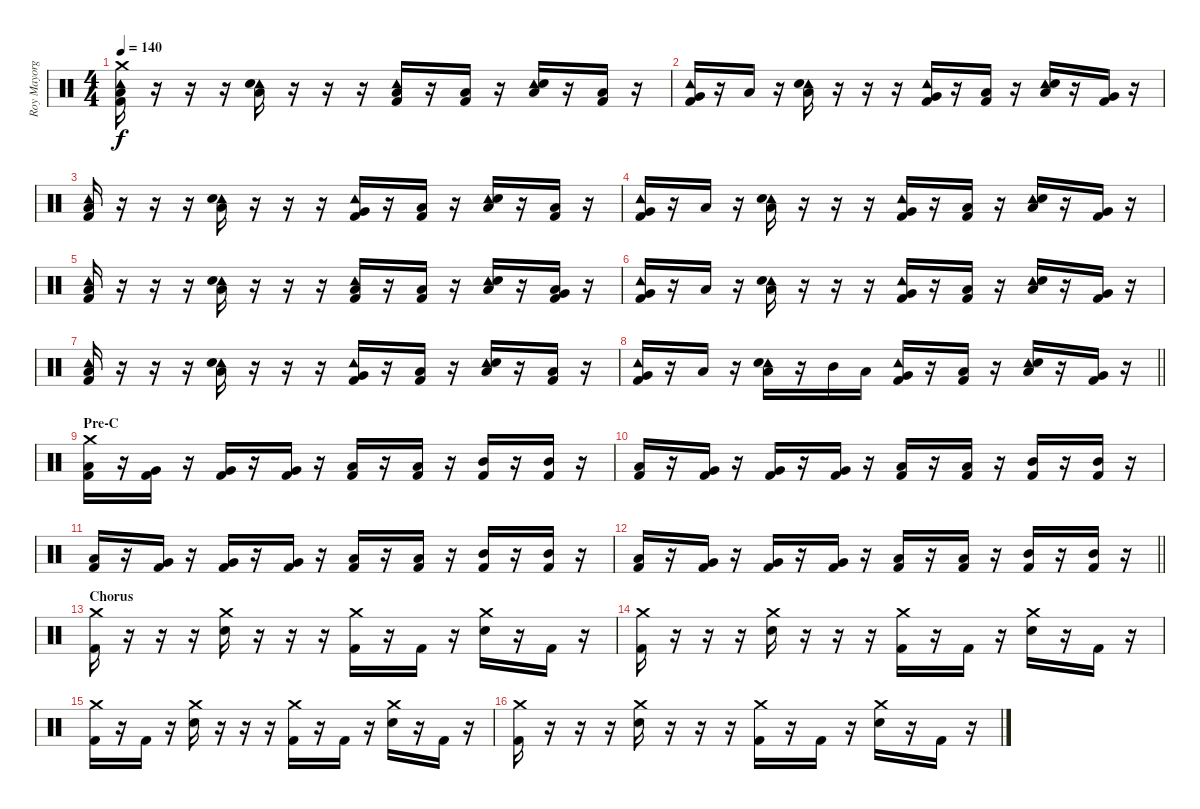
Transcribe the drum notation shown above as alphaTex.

\track ("Roy Mayorga" "Roy Mayorg") {instrument percussion}
\staff {score}
\articulation defaults
\ts (4 4)
\tempo 140
\clef neutral
\ks c
("Crash medium (hit)" "Tambourine (hit)" "Low Tom (hit)" "Kick (hit) 2").16{dy f} r.16 r.16 r.16 ("Tambourine (hit)" "Low Tom (hit)" "Snare (hit) 2").16 r.16 r.16 r.16 ("Tambourine (hit)" "Low Tom (hit)" "Kick (hit) 2").16 r.16 ("Low Floor Tom (hit)" "Kick (hit) 2").16 r.16 ("Tambourine (hit)" "Low Tom (hit)" "Snare (hit) 2").16 r.16 ("Low Floor Tom (hit)" "Kick (hit) 2").16 r.16 |
("Tambourine (hit)" "Very Low Tom (hit)" "Kick (hit) 2").16 r.16 "Low Tom (hit)".16 r.16 ("Tambourine (hit)" "Low Tom (hit)" "Snare (hit) 2").16 r.16 r.16 r.16 ("Tambourine (hit)" "Very Low Tom (hit)" "Kick (hit) 2").16 r.16 ("Low Tom (hit)" "Kick (hit) 2").16 r.16 ("Tambourine (hit)" "Low Tom (hit)" "Snare (hit) 2").16 r.16 ("Very Low Tom (hit)" "Kick (hit) 2").16 r.16 |
("Tambourine (hit)" "Low Tom (hit)" "Kick (hit) 2").16 r.16 r.16 r.16 ("Tambourine (hit)" "Low Tom (hit)" "Snare (hit) 2").16 r.16 r.16 r.16 ("Tambourine (hit)" "Very Low Tom (hit)" "Kick (hit) 2").16 r.16 ("Low Tom (hit)" "Kick (hit) 2").16 r.16 ("Tambourine (hit)" "Low Tom (hit)" "Snare (hit) 2").16 r.16 ("Low Floor Tom (hit)" "Kick (hit) 2").16 r.16 |
("Tambourine (hit)" "Very Low Tom (hit)" "Kick (hit) 2").16 r.16 "Low Tom (hit)".16 r.16 ("Tambourine (hit)" "Low Tom (hit)" "Snare (hit) 2").16 r.16 r.16 r.16 ("Tambourine (hit)" "Very Low Tom (hit)" "Kick (hit) 2").16 r.16 ("Low Tom (hit)" "Kick (hit) 2").16 r.16 ("Tambourine (hit)" "Low Tom (hit)" "Snare (hit) 2").16 r.16 ("Very Low Tom (hit)" "Kick (hit) 2").16 r.16 |
("Tambourine (hit)" "Low Tom (hit)" "Kick (hit) 2").16 r.16 r.16 r.16 ("Tambourine (hit)" "Low Tom (hit)" "Snare (hit) 2").16 r.16 r.16 r.16 ("Tambourine (hit)" "Low Tom (hit)" "Kick (hit) 2").16 r.16 ("Low Floor Tom (hit)" "Kick (hit) 2").16 r.16 ("Tambourine (hit)" "Low Tom (hit)" "Snare (hit) 2").16 r.16 ("Low Floor Tom (hit)" "Very Low Tom (hit)" "Kick (hit) 2").16 r.16 |
("Tambourine (hit)" "Very Low Tom (hit)" "Kick (hit) 2").16 r.16 "Low Tom (hit)".16 r.16 ("Tambourine (hit)" "Low Tom (hit)" "Snare (hit) 2").16 r.16 r.16 r.16 ("Tambourine (hit)" "Very Low Tom (hit)" "Kick (hit) 2").16 r.16 ("Low Tom (hit)" "Kick (hit) 2").16 r.16 ("Tambourine (hit)" "Low Tom (hit)" "Snare (hit) 2").16 r.16 ("Very Low Tom (hit)" "Kick (hit) 2").16 r.16 |
("Tambourine (hit)" "Low Tom (hit)" "Kick (hit) 2").16 r.16 r.16 r.16 ("Tambourine (hit)" "Low Tom (hit)" "Snare (hit) 2").16 r.16 r.16 r.16 ("Tambourine (hit)" "Very Low Tom (hit)" "Kick (hit) 2").16 r.16 ("Low Tom (hit)" "Kick (hit) 2").16 r.16 ("Tambourine (hit)" "Low Tom (hit)" "Snare (hit) 2").16 r.16 ("Low Floor Tom (hit)" "Kick (hit) 2").16 r.16 |
\barLineRight lightlight
("Tambourine (hit)" "Very Low Tom (hit)" "Kick (hit) 2").16 r.16 "Low Tom (hit)".16 r.16 ("Tambourine (hit)" "Low Tom (hit)" "Snare (hit) 2").16 r.16 "Mid Tom (hit)".16 "Low Tom (hit)".16 ("Tambourine (hit)" "Very Low Tom (hit)" "Kick (hit) 2").16 r.16 ("Low Tom (hit)" "Kick (hit) 2").16 r.16 ("Tambourine (hit)" "Low Tom (hit)" "Snare (hit) 2").16 r.16 ("Very Low Tom (hit)" "Kick (hit) 2").16 r.16 |
\section ("" "Pre-C")
("Crash medium (hit)" "Low Tom (hit)" "Kick (hit) 2").16 r.16 ("Very Low Tom (hit)" "Kick (hit) 2").16 r.16 ("Very Low Tom (hit)" "Kick (hit) 2").16 r.16 ("Very Low Tom (hit)" "Kick (hit) 2").16 r.16 ("Low Tom (hit)" "Kick (hit) 2").16 r.16 ("Low Tom (hit)" "Kick (hit) 2").16 r.16 ("Mid Tom (hit)" "Kick (hit) 2").16 r.16 ("Mid Tom (hit)" "Kick (hit) 2").16 r.16 |
("Low Tom (hit)" "Kick (hit) 2").16 r.16 ("Very Low Tom (hit)" "Kick (hit) 2").16 r.16 ("Very Low Tom (hit)" "Kick (hit) 2").16 r.16 ("Very Low Tom (hit)" "Kick (hit) 2").16 r.16 ("Low Tom (hit)" "Kick (hit) 2").16 r.16 ("Low Tom (hit)" "Kick (hit) 2").16 r.16 ("Mid Tom (hit)" "Kick (hit) 2").16 r.16 ("Mid Tom (hit)" "Kick (hit) 2").16 r.16 |
("Low Tom (hit)" "Kick (hit) 2").16 r.16 ("Very Low Tom (hit)" "Kick (hit) 2").16 r.16 ("Very Low Tom (hit)" "Kick (hit) 2").16 r.16 ("Very Low Tom (hit)" "Kick (hit) 2").16 r.16 ("Low Tom (hit)" "Kick (hit) 2").16 r.16 ("Low Tom (hit)" "Kick (hit) 2").16 r.16 ("Mid Tom (hit)" "Kick (hit) 2").16 r.16 ("Mid Tom (hit)" "Kick (hit) 2").16 r.16 |
\barLineRight lightlight
("Low Tom (hit)" "Kick (hit) 2").16 r.16 ("Very Low Tom (hit)" "Kick (hit) 2").16 r.16 ("Very Low Tom (hit)" "Kick (hit) 2").16 r.16 ("Very Low Tom (hit)" "Kick (hit) 2").16 r.16 ("Low Tom (hit)" "Kick (hit) 2").16 r.16 ("Low Tom (hit)" "Kick (hit) 2").16 r.16 ("Mid Tom (hit)" "Kick (hit) 2").16 r.16 ("Mid Tom (hit)" "Kick (hit) 2").16 r.16 |
\section ("" "Chorus")
("Crash medium (hit)" "Kick (hit) 2").16 r.16 r.16 r.16 ("Crash medium (hit)" "Snare (hit) 2").16 r.16 r.16 r.16 ("Crash medium (hit)" "Kick (hit) 2").16 r.16 "Kick (hit) 2".16 r.16 ("Crash medium (hit)" "Snare (hit) 2").16 r.16 "Kick (hit) 2".16 r.16 |
("Crash medium (hit)" "Kick (hit) 2").16 r.16 r.16 r.16 ("Crash medium (hit)" "Snare (hit) 2").16 r.16 r.16 r.16 ("Crash medium (hit)" "Kick (hit) 2").16 r.16 "Kick (hit) 2".16 r.16 ("Crash medium (hit)" "Snare (hit) 2").16 r.16 "Kick (hit) 2".16 r.16 |
("Crash medium (hit)" "Kick (hit) 2").16 r.16 "Kick (hit) 2".16 r.16 ("Crash medium (hit)" "Snare (hit) 2").16 r.16 r.16 r.16 ("Crash medium (hit)" "Kick (hit) 2").16 r.16 "Kick (hit) 2".16 r.16 ("Crash medium (hit)" "Snare (hit) 2").16 r.16 "Kick (hit) 2".16 r.16 |
("Crash medium (hit)" "Kick (hit) 2").16 r.16 r.16 r.16 ("Crash medium (hit)" "Snare (hit) 2").16 r.16 r.16 r.16 ("Crash medium (hit)" "Kick (hit) 2").16 r.16 "Kick (hit) 2".16 r.16 ("Crash medium (hit)" "Snare (hit) 2").16 r.16 "Kick (hit) 2".16 r.16
